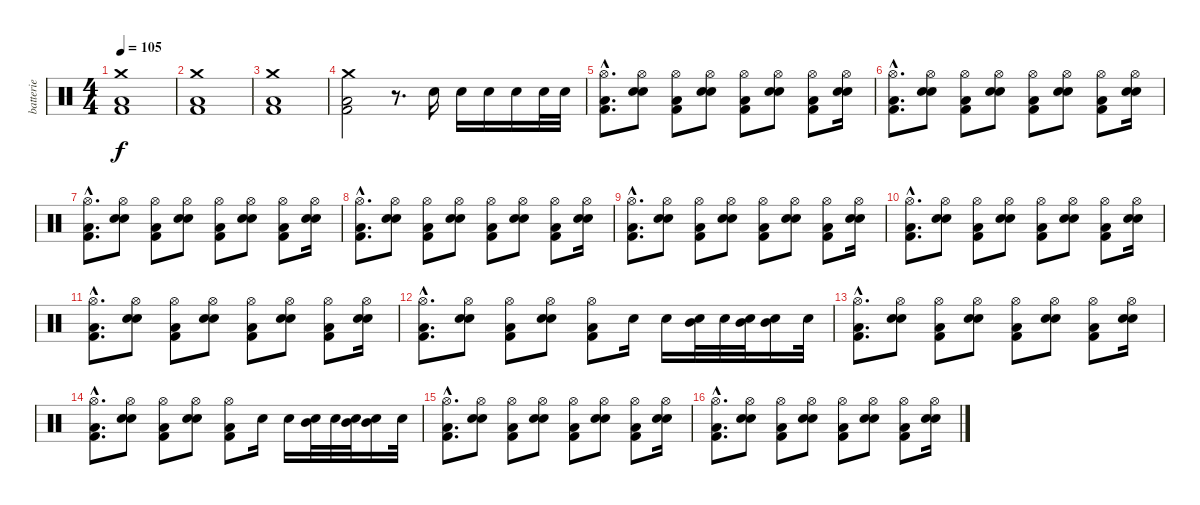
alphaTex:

\track ("batterie" "batterie") {instrument percussion}
\staff {score}
\articulation defaults
\ts (4 4)
\tempo 105
\clef neutral
\ks c
("Crash medium (hit)" "Kick (hit) 2" "Low Floor Tom (hit)").1{dy f} |
("Crash medium (hit)" "Kick (hit) 2" "Low Floor Tom (hit)").1 |
("Crash medium (hit)" "Kick (hit) 2" "Low Floor Tom (hit)").1 |
("Crash medium (hit)" "Kick (hit) 2" "Low Floor Tom (hit)").2 r.8{d} "Electric Snare (hit)".16 "Electric Snare (hit)".16 "Electric Snare (hit)".16 "Electric Snare (hit)".16 "Electric Snare (hit)".32 "Electric Snare (hit)".32 |
("Kick (hit) 2"{hac} "Low Floor Tom (hit)"{hac} "Hi-Hat (open)"{hac}).8{d} ("Electric Snare (hit)" "Snare (hit) 2" "Hi-Hat (open)").8 ("Kick (hit) 2" "Low Floor Tom (hit)" "Hi-Hat (open)").8 ("Electric Snare (hit)" "Snare (hit) 2" "Hi-Hat (open)").8 ("Kick (hit) 2" "Low Floor Tom (hit)" "Hi-Hat (open)").8 ("Electric Snare (hit)" "Snare (hit) 2" "Hi-Hat (open)").8 ("Kick (hit) 2" "Low Floor Tom (hit)" "Hi-Hat (open)").8 ("Electric Snare (hit)" "Snare (hit) 2" "Hi-Hat (open)").16 |
("Kick (hit) 2"{hac} "Low Floor Tom (hit)"{hac} "Hi-Hat (open)"{hac}).8{d} ("Electric Snare (hit)" "Snare (hit) 2" "Hi-Hat (open)").8 ("Kick (hit) 2" "Low Floor Tom (hit)" "Hi-Hat (open)").8 ("Electric Snare (hit)" "Snare (hit) 2" "Hi-Hat (open)").8 ("Kick (hit) 2" "Low Floor Tom (hit)" "Hi-Hat (open)").8 ("Electric Snare (hit)" "Snare (hit) 2" "Hi-Hat (open)").8 ("Kick (hit) 2" "Low Floor Tom (hit)" "Hi-Hat (open)").8 ("Electric Snare (hit)" "Snare (hit) 2" "Hi-Hat (open)").16 |
("Kick (hit) 2"{hac} "Low Floor Tom (hit)"{hac} "Hi-Hat (open)"{hac}).8{d} ("Electric Snare (hit)" "Snare (hit) 2" "Hi-Hat (open)").8 ("Kick (hit) 2" "Low Floor Tom (hit)" "Hi-Hat (open)").8 ("Electric Snare (hit)" "Snare (hit) 2" "Hi-Hat (open)").8 ("Kick (hit) 2" "Low Floor Tom (hit)" "Hi-Hat (open)").8 ("Electric Snare (hit)" "Snare (hit) 2" "Hi-Hat (open)").8 ("Kick (hit) 2" "Low Floor Tom (hit)" "Hi-Hat (open)").8 ("Electric Snare (hit)" "Snare (hit) 2" "Hi-Hat (open)").16 |
("Kick (hit) 2"{hac} "Low Floor Tom (hit)"{hac} "Hi-Hat (open)"{hac}).8{d} ("Electric Snare (hit)" "Snare (hit) 2" "Hi-Hat (open)").8 ("Kick (hit) 2" "Low Floor Tom (hit)" "Hi-Hat (open)").8 ("Electric Snare (hit)" "Snare (hit) 2" "Hi-Hat (open)").8 ("Kick (hit) 2" "Low Floor Tom (hit)" "Hi-Hat (open)").8 ("Electric Snare (hit)" "Snare (hit) 2" "Hi-Hat (open)").8 ("Kick (hit) 2" "Low Floor Tom (hit)" "Hi-Hat (open)").8 ("Electric Snare (hit)" "Snare (hit) 2" "Hi-Hat (open)").16 |
("Kick (hit) 2"{hac} "Low Floor Tom (hit)"{hac} "Hi-Hat (open)"{hac}).8{d} ("Electric Snare (hit)" "Snare (hit) 2" "Hi-Hat (open)").8 ("Kick (hit) 2" "Low Floor Tom (hit)" "Hi-Hat (open)").8 ("Electric Snare (hit)" "Snare (hit) 2" "Hi-Hat (open)").8 ("Kick (hit) 2" "Low Floor Tom (hit)" "Hi-Hat (open)").8 ("Electric Snare (hit)" "Snare (hit) 2" "Hi-Hat (open)").8 ("Kick (hit) 2" "Low Floor Tom (hit)" "Hi-Hat (open)").8 ("Electric Snare (hit)" "Snare (hit) 2" "Hi-Hat (open)").16 |
("Kick (hit) 2"{hac} "Low Floor Tom (hit)"{hac} "Hi-Hat (open)"{hac}).8{d} ("Electric Snare (hit)" "Snare (hit) 2" "Hi-Hat (open)").8 ("Kick (hit) 2" "Low Floor Tom (hit)" "Hi-Hat (open)").8 ("Electric Snare (hit)" "Snare (hit) 2" "Hi-Hat (open)").8 ("Kick (hit) 2" "Low Floor Tom (hit)" "Hi-Hat (open)").8 ("Electric Snare (hit)" "Snare (hit) 2" "Hi-Hat (open)").8 ("Kick (hit) 2" "Low Floor Tom (hit)" "Hi-Hat (open)").8 ("Electric Snare (hit)" "Snare (hit) 2" "Hi-Hat (open)").16 |
("Kick (hit) 2"{hac} "Low Floor Tom (hit)"{hac} "Hi-Hat (open)"{hac}).8{d} ("Electric Snare (hit)" "Snare (hit) 2" "Hi-Hat (open)").8 ("Kick (hit) 2" "Low Floor Tom (hit)" "Hi-Hat (open)").8 ("Electric Snare (hit)" "Snare (hit) 2" "Hi-Hat (open)").8 ("Kick (hit) 2" "Low Floor Tom (hit)" "Hi-Hat (open)").8 ("Electric Snare (hit)" "Snare (hit) 2" "Hi-Hat (open)").8 ("Kick (hit) 2" "Low Floor Tom (hit)" "Hi-Hat (open)").8 ("Electric Snare (hit)" "Snare (hit) 2" "Hi-Hat (open)").16 |
("Kick (hit) 2"{hac} "Low Floor Tom (hit)"{hac} "Hi-Hat (open)"{hac}).8{d} ("Electric Snare (hit)" "Snare (hit) 2" "Hi-Hat (open)").8 ("Kick (hit) 2" "Low Floor Tom (hit)" "Hi-Hat (open)").8 ("Electric Snare (hit)" "Snare (hit) 2" "Hi-Hat (open)").8 ("Kick (hit) 2" "Low Floor Tom (hit)" "Hi-Hat (open)").8 "Electric Snare (hit)".16 "Electric Snare (hit)".16 ("Electric Snare (hit)" "Mid Tom (hit)").32 "Electric Snare (hit)".32 ("Electric Snare (hit)" "Mid Tom (hit)").32 ("Electric Snare (hit)" "Mid Tom (hit)").16 "Electric Snare (hit)".32 |
("Kick (hit) 2"{hac} "Low Floor Tom (hit)"{hac} "Hi-Hat (open)"{hac}).8{d} ("Electric Snare (hit)" "Snare (hit) 2" "Hi-Hat (open)").8 ("Kick (hit) 2" "Low Floor Tom (hit)" "Hi-Hat (open)").8 ("Electric Snare (hit)" "Snare (hit) 2" "Hi-Hat (open)").8 ("Kick (hit) 2" "Low Floor Tom (hit)" "Hi-Hat (open)").8 ("Electric Snare (hit)" "Snare (hit) 2" "Hi-Hat (open)").8 ("Kick (hit) 2" "Low Floor Tom (hit)" "Hi-Hat (open)").8 ("Electric Snare (hit)" "Snare (hit) 2" "Hi-Hat (open)").16 |
("Kick (hit) 2"{hac} "Low Floor Tom (hit)"{hac} "Hi-Hat (open)"{hac}).8{d} ("Electric Snare (hit)" "Snare (hit) 2" "Hi-Hat (open)").8 ("Kick (hit) 2" "Low Floor Tom (hit)" "Hi-Hat (open)").8 ("Electric Snare (hit)" "Snare (hit) 2" "Hi-Hat (open)").8 ("Kick (hit) 2" "Low Floor Tom (hit)" "Hi-Hat (open)").8 "Electric Snare (hit)".16 "Electric Snare (hit)".16 ("Electric Snare (hit)" "Mid Tom (hit)").32 "Electric Snare (hit)".32 ("Electric Snare (hit)" "Mid Tom (hit)").32 ("Electric Snare (hit)" "Mid Tom (hit)").16 "Electric Snare (hit)".32 |
("Kick (hit) 2"{hac} "Low Floor Tom (hit)"{hac} "Hi-Hat (open)"{hac}).8{d} ("Electric Snare (hit)" "Snare (hit) 2" "Hi-Hat (open)").8 ("Kick (hit) 2" "Low Floor Tom (hit)" "Hi-Hat (open)").8 ("Electric Snare (hit)" "Snare (hit) 2" "Hi-Hat (open)").8 ("Kick (hit) 2" "Low Floor Tom (hit)" "Hi-Hat (open)").8 ("Electric Snare (hit)" "Snare (hit) 2" "Hi-Hat (open)").8 ("Kick (hit) 2" "Low Floor Tom (hit)" "Hi-Hat (open)").8 ("Electric Snare (hit)" "Snare (hit) 2" "Hi-Hat (open)").16 |
("Kick (hit) 2"{hac} "Low Floor Tom (hit)"{hac} "Hi-Hat (open)"{hac}).8{d} ("Electric Snare (hit)" "Snare (hit) 2" "Hi-Hat (open)").8 ("Kick (hit) 2" "Low Floor Tom (hit)" "Hi-Hat (open)").8 ("Electric Snare (hit)" "Snare (hit) 2" "Hi-Hat (open)").8 ("Kick (hit) 2" "Low Floor Tom (hit)" "Hi-Hat (open)").8 ("Electric Snare (hit)" "Snare (hit) 2" "Hi-Hat (open)").8 ("Kick (hit) 2" "Low Floor Tom (hit)" "Hi-Hat (open)").8 ("Electric Snare (hit)" "Snare (hit) 2" "Hi-Hat (open)").16
